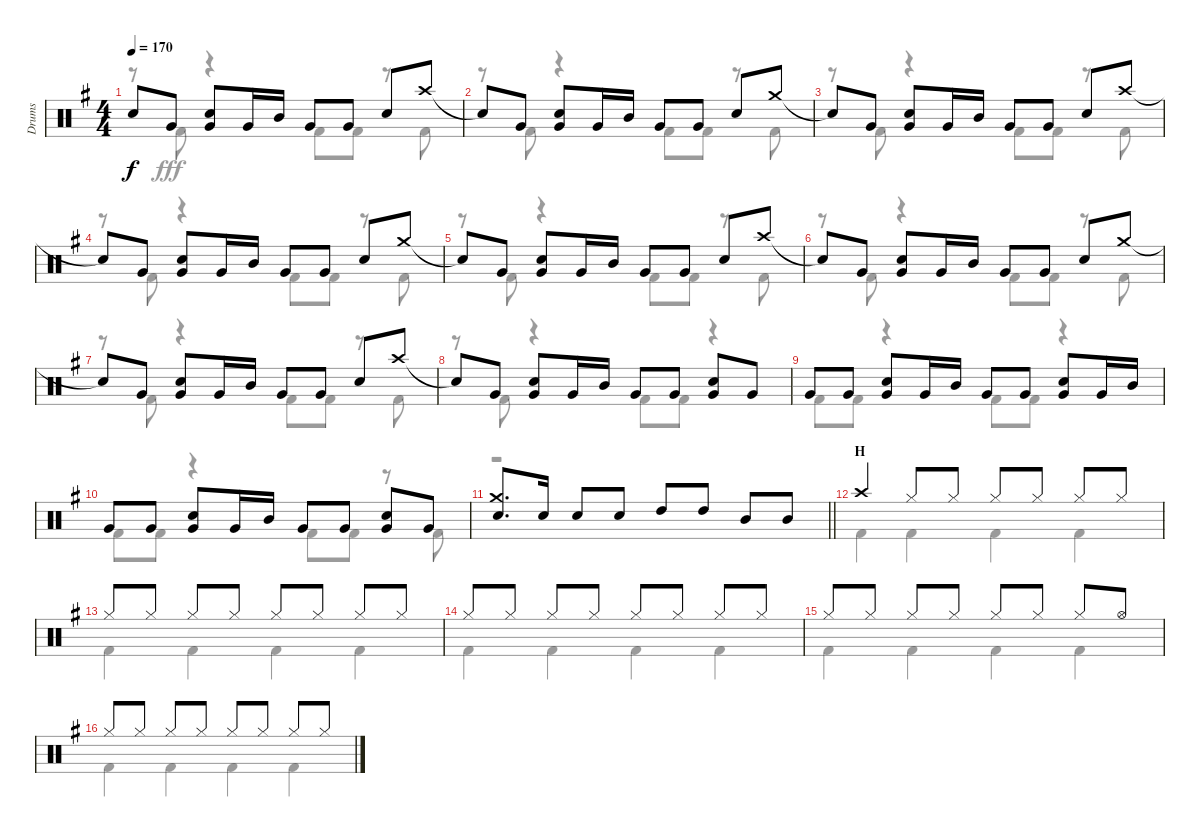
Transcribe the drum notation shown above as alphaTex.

\track ("Drums" "Drums") {instrument percussion}
\staff {score}
\articulation defaults
\voice
\ts (4 4)
\tempo 170
\clef neutral
\ks g "Snare (hit)"{t}.8{dy f} "Very Low Tom (hit)".8
("Snare (hit) 2" "Very Low Tom (hit)").8 "Very Low Tom (hit)".16 "Mid Tom (hit)".16 "Very Low Tom (hit)".8 "Very Low Tom (hit)".8 "Snare (hit) 2".8 "Crash high (hit)".8 |
"Snare (hit)"{t}.8 "Very Low Tom (hit)".8 ("Snare (hit) 2" "Very Low Tom (hit)").8 "Very Low Tom (hit)".16 "Mid Tom (hit)".16 "Very Low Tom (hit)".8 "Very Low Tom (hit)".8 "Snare (hit) 2".8 "Crash medium (hit)".8 |
"Snare (hit)"{t}.8 "Very Low Tom (hit)".8 ("Snare (hit) 2" "Very Low Tom (hit)").8 "Very Low Tom (hit)".16 "Mid Tom (hit)".16 "Very Low Tom (hit)".8 "Very Low Tom (hit)".8 "Snare (hit) 2".8 "Crash high (hit)".8 |
"Snare (hit)"{t}.8 "Very Low Tom (hit)".8 ("Snare (hit) 2" "Very Low Tom (hit)").8 "Very Low Tom (hit)".16 "Mid Tom (hit)".16 "Very Low Tom (hit)".8 "Very Low Tom (hit)".8 "Snare (hit) 2".8 "Crash medium (hit)".8 |
"Snare (hit)"{t}.8 "Very Low Tom (hit)".8 ("Snare (hit) 2" "Very Low Tom (hit)").8 "Very Low Tom (hit)".16 "Mid Tom (hit)".16 "Very Low Tom (hit)".8 "Very Low Tom (hit)".8 "Snare (hit) 2".8 "Crash high (hit)".8 |
"Snare (hit)"{t}.8 "Very Low Tom (hit)".8 ("Snare (hit) 2" "Very Low Tom (hit)").8 "Very Low Tom (hit)".16 "Mid Tom (hit)".16 "Very Low Tom (hit)".8 "Very Low Tom (hit)".8 "Snare (hit) 2".8 "Crash medium (hit)".8 |
"Snare (hit)"{t}.8 "Very Low Tom (hit)".8 ("Snare (hit) 2" "Very Low Tom (hit)").8 "Very Low Tom (hit)".16 "Mid Tom (hit)".16 "Very Low Tom (hit)".8 "Very Low Tom (hit)".8 "Snare (hit) 2".8 "Crash high (hit)".8 |
"Snare (hit)"{t}.8 "Very Low Tom (hit)".8 ("Snare (hit) 2" "Very Low Tom (hit)").8 "Very Low Tom (hit)".16 "Mid Tom (hit)".16 "Very Low Tom (hit)".8 "Very Low Tom (hit)".8 ("Snare (hit) 2" "Very Low Tom (hit)").8 "Very Low Tom (hit)".8 |
"Very Low Tom (hit)".8 "Very Low Tom (hit)".8 ("Snare (hit) 2" "Very Low Tom (hit)").8 "Very Low Tom (hit)".16 "Mid Tom (hit)".16 "Very Low Tom (hit)".8 "Very Low Tom (hit)".8 ("Snare (hit) 2" "Very Low Tom (hit)").8 "Very Low Tom (hit)".16 "Mid Tom (hit)".16 |
"Very Low Tom (hit)".8 "Very Low Tom (hit)".8 ("Snare (hit) 2" "Very Low Tom (hit)").8 "Very Low Tom (hit)".16 "Mid Tom (hit)".16 "Very Low Tom (hit)".8 "Very Low Tom (hit)".8 ("Snare (hit) 2" "Very Low Tom (hit)").8 "Very Low Tom (hit)".8 |
\barLineRight lightlight
("Crash medium (hit)" "Snare (hit) 2").8{d} "Snare (hit) 2".16 "Snare (hit) 2".8 "Snare (hit) 2".8 "High Tom (hit)".8 "High Tom (hit)".8 "Mid Tom (hit)".8 "Mid Tom (hit)".8 |
\section ("" "H")
"Crash high (hit)".4 "Hi-Hat (closed)".8 "Hi-Hat (closed)".8 "Hi-Hat (closed)".8 "Hi-Hat (closed)".8 "Hi-Hat (closed)".8 "Hi-Hat (closed)".8 |
"Hi-Hat (closed)".8 "Hi-Hat (closed)".8 "Hi-Hat (closed)".8 "Hi-Hat (closed)".8 "Hi-Hat (closed)".8 "Hi-Hat (closed)".8 "Hi-Hat (closed)".8 "Hi-Hat (closed)".8 |
"Hi-Hat (closed)".8 "Hi-Hat (closed)".8 "Hi-Hat (closed)".8 "Hi-Hat (closed)".8 "Hi-Hat (closed)".8 "Hi-Hat (closed)".8 "Hi-Hat (closed)".8 "Hi-Hat (closed)".8 |
"Hi-Hat (closed)".8 "Hi-Hat (closed)".8 "Hi-Hat (closed)".8 "Hi-Hat (closed)".8 "Hi-Hat (closed)".8 "Hi-Hat (closed)".8 "Hi-Hat (closed)".8 "Hi-Hat (open)".8 |
"Hi-Hat (closed)".8 "Hi-Hat (closed)".8 "Hi-Hat (closed)".8 "Hi-Hat (closed)".8 "Hi-Hat (closed)".8 "Hi-Hat (closed)".8 "Hi-Hat (closed)".8 "Hi-Hat (closed)".8
\voice
\clef neutral
\ottava regular
\simile none
\ks g
r.8{dy fff} "Kick (hit) 2".8 r.4 "Kick (hit) 2".8 "Kick (hit) 2".8 r.8 "Kick (hit) 2".8 |
r.8 "Kick (hit) 2".8 r.4 "Kick (hit) 2".8 "Kick (hit) 2".8 r.8 "Kick (hit) 2".8 |
r.8 "Kick (hit) 2".8 r.4 "Kick (hit) 2".8 "Kick (hit) 2".8 r.8 "Kick (hit) 2".8 |
r.8 "Kick (hit) 2".8 r.4 "Kick (hit) 2".8 "Kick (hit) 2".8 r.8 "Kick (hit) 2".8 |
r.8 "Kick (hit) 2".8 r.4 "Kick (hit) 2".8 "Kick (hit) 2".8 r.8 "Kick (hit) 2".8 |
r.8 "Kick (hit) 2".8 r.4 "Kick (hit) 2".8 "Kick (hit) 2".8 r.8 "Kick (hit) 2".8 |
r.8 "Kick (hit) 2".8 r.4 "Kick (hit) 2".8 "Kick (hit) 2".8 r.8 "Kick (hit) 2".8 |
r.8 "Kick (hit) 2".8 r.4 "Kick (hit) 2".8 "Kick (hit) 2".8 r.4 |
"Kick (hit) 2".8 "Kick (hit) 2".8 r.4 "Kick (hit) 2".8 "Kick (hit) 2".8 r.4 |
"Kick (hit) 2".8 "Kick (hit) 2".8 r.4 "Kick (hit) 2".8 "Kick (hit) 2".8 r.8 "Kick (hit) 2".8 |
\barLineRight lightlight
r.1 |
"Kick (hit) 2".4 "Kick (hit) 2".4 "Kick (hit) 2".4 "Kick (hit) 2".4 |
"Kick (hit) 2".4 "Kick (hit) 2".4 "Kick (hit) 2".4 "Kick (hit) 2".4 |
"Kick (hit) 2".4 "Kick (hit) 2".4 "Kick (hit) 2".4 "Kick (hit) 2".4 |
"Kick (hit) 2".4 "Kick (hit) 2".4 "Kick (hit) 2".4 "Kick (hit) 2".4 |
"Kick (hit) 2".4 "Kick (hit) 2".4 "Kick (hit) 2".4 "Kick (hit) 2".4
